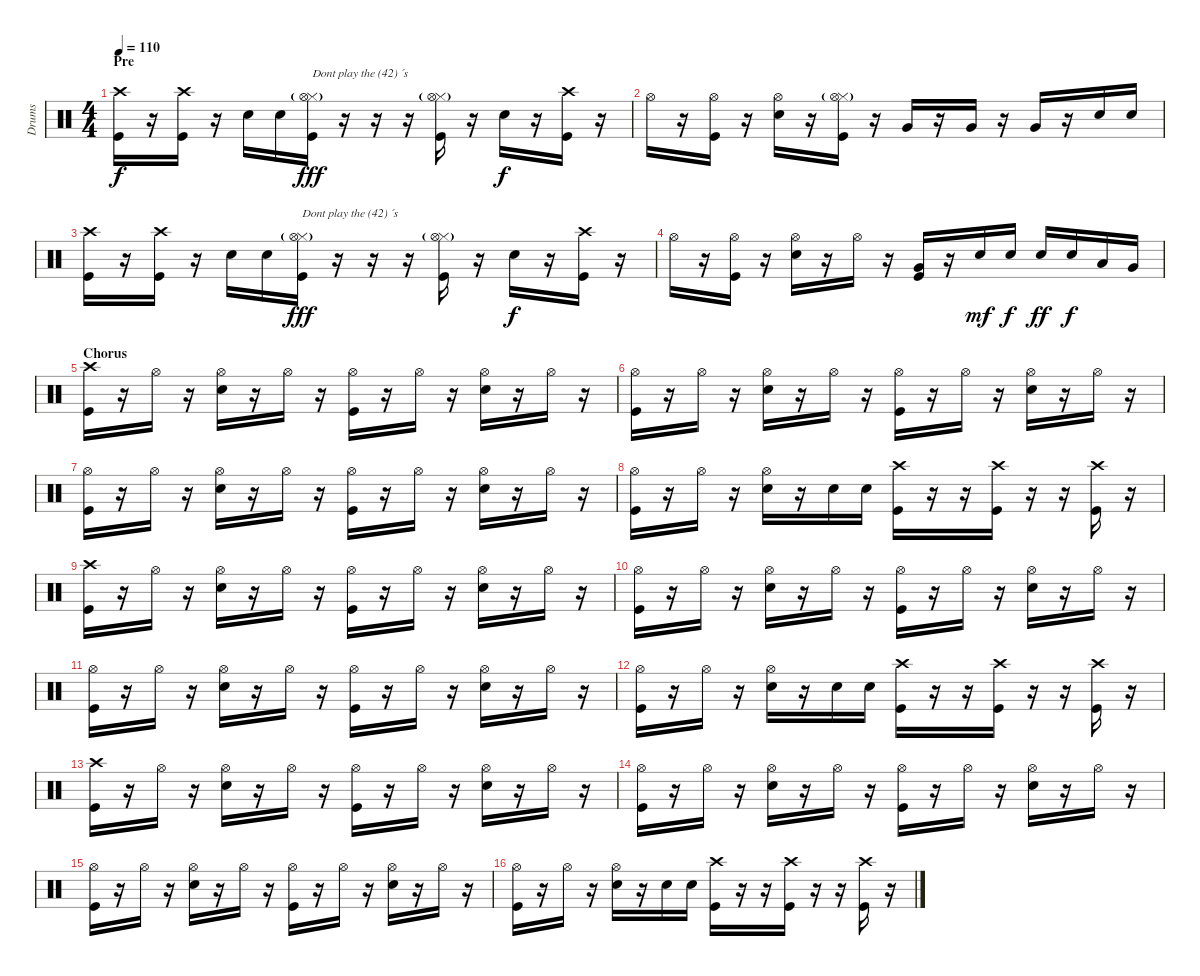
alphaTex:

\track ("Drums" "Drums") {instrument percussion}
\staff {score}
\articulation defaults
\ts (4 4)
\section ("" "Pre")
\tempo 110
\clef neutral
\ks c
("Crash high (hit)" "Kick (hit)").16{dy f} r.16 ("Crash high (hit)" "Kick (hit)").16 r.16 "Snare (hit) 2".16 "Snare (hit) 2".16 ("Hi-Hat (closed)"{g} "Hi-Hat (open)" "Kick (hit)").16{txt "Dont play the (42) ´s" dy fff} r.16 r.16 r.16 ("Hi-Hat (closed)"{g} "Hi-Hat (open)" "Kick (hit)").16 r.16 "Snare (hit) 2".16{dy f} r.16 ("Crash high (hit)" "Kick (hit)").16 r.16 |
"Hi-Hat (open)".16 r.16 ("Hi-Hat (open)" "Kick (hit)").16 r.16 ("Hi-Hat (open)" "Snare (hit) 2").16 r.16 ("Hi-Hat (closed)"{g} "Hi-Hat (open)" "Kick (hit)").16 r.16 "Very Low Tom (hit)".16 r.16 "Very Low Tom (hit)".16 r.16 "Very Low Tom (hit)".16 r.16 "Snare (hit) 2".16 "Snare (hit) 2".16 |
("Crash high (hit)" "Kick (hit)").16 r.16 ("Crash high (hit)" "Kick (hit)").16 r.16 "Snare (hit) 2".16 "Snare (hit) 2".16 ("Hi-Hat (closed)"{g} "Hi-Hat (open)" "Kick (hit)").16{txt "Dont play the (42) ´s" dy fff} r.16 r.16 r.16 ("Hi-Hat (closed)"{g} "Hi-Hat (open)" "Kick (hit)").16 r.16 "Snare (hit) 2".16{dy f} r.16 ("Crash high (hit)" "Kick (hit)").16 r.16 |
"Hi-Hat (open)".16 r.16 ("Hi-Hat (open)" "Kick (hit)").16 r.16 ("Hi-Hat (open)" "Snare (hit) 2").16 r.16 "Hi-Hat (open)".16 r.16 ("Very Low Tom (hit)" "Kick (hit)").16 r.16 "Snare (hit) 2".16{dy mf} "Snare (hit) 2".16{dy f} "Snare (hit) 2".16{dy ff} "Snare (hit) 2".16{dy f} "Low Tom (hit)".16 "Very Low Tom (hit)".16 |
\section ("" "Chorus")
("Crash high (hit)" "Kick (hit)").16 r.16 "Hi-Hat (open)".16 r.16 ("Hi-Hat (open)" "Snare (hit) 2").16 r.16 "Hi-Hat (open)".16 r.16 ("Hi-Hat (open)" "Kick (hit)").16 r.16 "Hi-Hat (open)".16 r.16 ("Hi-Hat (open)" "Snare (hit) 2").16 r.16 "Hi-Hat (open)".16 r.16 |
("Hi-Hat (open)" "Kick (hit)").16 r.16 "Hi-Hat (open)".16 r.16 ("Hi-Hat (open)" "Snare (hit) 2").16 r.16 "Hi-Hat (open)".16 r.16 ("Hi-Hat (open)" "Kick (hit)").16 r.16 "Hi-Hat (open)".16 r.16 ("Hi-Hat (open)" "Snare (hit) 2").16 r.16 "Hi-Hat (open)".16 r.16 |
("Hi-Hat (open)" "Kick (hit)").16 r.16 "Hi-Hat (open)".16 r.16 ("Hi-Hat (open)" "Snare (hit) 2").16 r.16 "Hi-Hat (open)".16 r.16 ("Hi-Hat (open)" "Kick (hit)").16 r.16 "Hi-Hat (open)".16 r.16 ("Hi-Hat (open)" "Snare (hit) 2").16 r.16 "Hi-Hat (open)".16 r.16 |
("Hi-Hat (open)" "Kick (hit)").16 r.16 "Hi-Hat (open)".16 r.16 ("Hi-Hat (open)" "Snare (hit) 2").16 r.16 "Snare (hit) 2".16 "Snare (hit) 2".16 ("Crash high (hit)" "Kick (hit)").16 r.16 r.16 ("Crash high (hit)" "Kick (hit)").16 r.16 r.16 ("Crash high (hit)" "Kick (hit)").16 r.16 |
("Crash high (hit)" "Kick (hit)").16 r.16 "Hi-Hat (open)".16 r.16 ("Hi-Hat (open)" "Snare (hit) 2").16 r.16 "Hi-Hat (open)".16 r.16 ("Hi-Hat (open)" "Kick (hit)").16 r.16 "Hi-Hat (open)".16 r.16 ("Hi-Hat (open)" "Snare (hit) 2").16 r.16 "Hi-Hat (open)".16 r.16 |
("Hi-Hat (open)" "Kick (hit)").16 r.16 "Hi-Hat (open)".16 r.16 ("Hi-Hat (open)" "Snare (hit) 2").16 r.16 "Hi-Hat (open)".16 r.16 ("Hi-Hat (open)" "Kick (hit)").16 r.16 "Hi-Hat (open)".16 r.16 ("Hi-Hat (open)" "Snare (hit) 2").16 r.16 "Hi-Hat (open)".16 r.16 |
("Hi-Hat (open)" "Kick (hit)").16 r.16 "Hi-Hat (open)".16 r.16 ("Hi-Hat (open)" "Snare (hit) 2").16 r.16 "Hi-Hat (open)".16 r.16 ("Hi-Hat (open)" "Kick (hit)").16 r.16 "Hi-Hat (open)".16 r.16 ("Hi-Hat (open)" "Snare (hit) 2").16 r.16 "Hi-Hat (open)".16 r.16 |
("Hi-Hat (open)" "Kick (hit)").16 r.16 "Hi-Hat (open)".16 r.16 ("Hi-Hat (open)" "Snare (hit) 2").16 r.16 "Snare (hit) 2".16 "Snare (hit) 2".16 ("Crash high (hit)" "Kick (hit)").16 r.16 r.16 ("Crash high (hit)" "Kick (hit)").16 r.16 r.16 ("Crash high (hit)" "Kick (hit)").16 r.16 |
("Crash high (hit)" "Kick (hit)").16 r.16 "Hi-Hat (open)".16 r.16 ("Hi-Hat (open)" "Snare (hit) 2").16 r.16 "Hi-Hat (open)".16 r.16 ("Hi-Hat (open)" "Kick (hit)").16 r.16 "Hi-Hat (open)".16 r.16 ("Hi-Hat (open)" "Snare (hit) 2").16 r.16 "Hi-Hat (open)".16 r.16 |
("Hi-Hat (open)" "Kick (hit)").16 r.16 "Hi-Hat (open)".16 r.16 ("Hi-Hat (open)" "Snare (hit) 2").16 r.16 "Hi-Hat (open)".16 r.16 ("Hi-Hat (open)" "Kick (hit)").16 r.16 "Hi-Hat (open)".16 r.16 ("Hi-Hat (open)" "Snare (hit) 2").16 r.16 "Hi-Hat (open)".16 r.16 |
("Hi-Hat (open)" "Kick (hit)").16 r.16 "Hi-Hat (open)".16 r.16 ("Hi-Hat (open)" "Snare (hit) 2").16 r.16 "Hi-Hat (open)".16 r.16 ("Hi-Hat (open)" "Kick (hit)").16 r.16 "Hi-Hat (open)".16 r.16 ("Hi-Hat (open)" "Snare (hit) 2").16 r.16 "Hi-Hat (open)".16 r.16 |
("Hi-Hat (open)" "Kick (hit)").16 r.16 "Hi-Hat (open)".16 r.16 ("Hi-Hat (open)" "Snare (hit) 2").16 r.16 "Snare (hit) 2".16 "Snare (hit) 2".16 ("Crash high (hit)" "Kick (hit)").16 r.16 r.16 ("Crash high (hit)" "Kick (hit)").16 r.16 r.16 ("Crash high (hit)" "Kick (hit)").16 r.16
